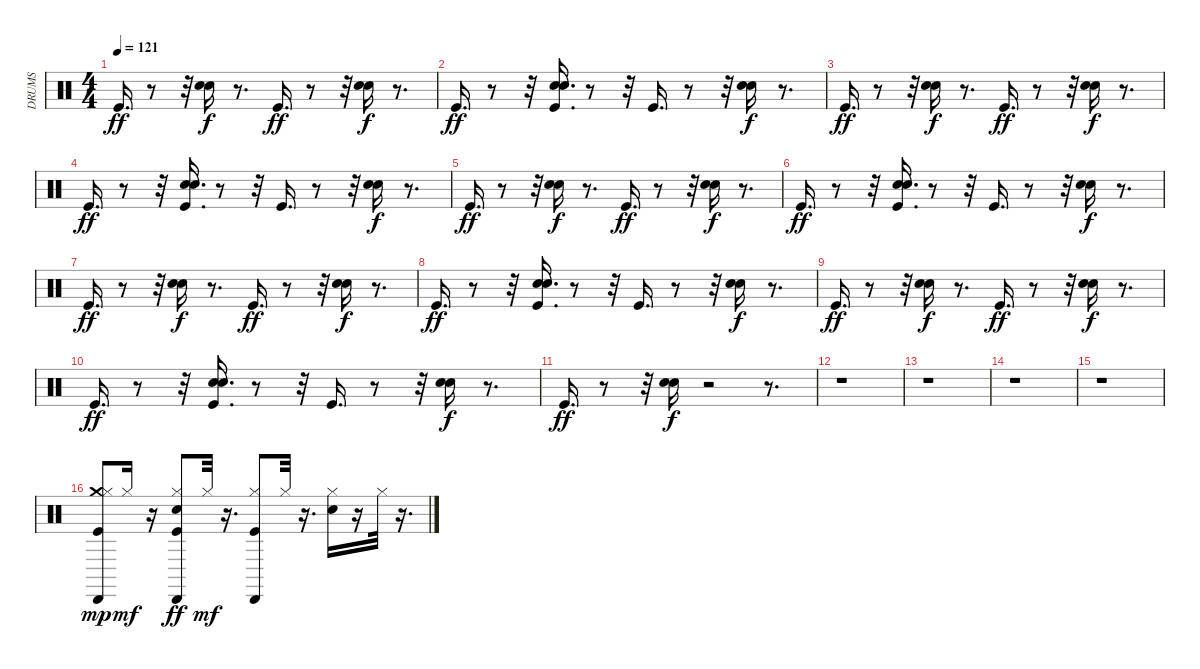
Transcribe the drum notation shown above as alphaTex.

\track ("DRUMS" "DRUMS") {instrument percussion}
\staff {score}
\articulation defaults
\ts (4 4)
\tempo 121
\clef neutral
\ks c "Kick (hit)".16{d dy ff}
r.8 r.32 ("Hand Clap (hit)" "Electric Snare (hit)").16{dy f} r.8{d} "Kick (hit)".16{d dy ff} r.8 r.32 ("Electric Snare (hit)" "Hand Clap (hit)").16{dy f} r.8{d} |
"Kick (hit)".16{d dy ff} r.8 r.32 ("Hand Clap (hit)" "Kick (hit)" "Electric Snare (hit)").16{d} r.8 r.32 "Kick (hit)".16{d} r.8 r.32 ("Hand Clap (hit)" "Electric Snare (hit)").16{dy f} r.8{d} |
"Kick (hit)".16{d dy ff} r.8 r.32 ("Electric Snare (hit)" "Hand Clap (hit)").16{dy f} r.8{d} "Kick (hit)".16{d dy ff} r.8 r.32 ("Electric Snare (hit)" "Hand Clap (hit)").16{dy f} r.8{d} |
"Kick (hit)".16{d dy ff} r.8 r.32 ("Kick (hit)" "Electric Snare (hit)" "Hand Clap (hit)").16{d} r.8 r.32 "Kick (hit)".16{d} r.8 r.32 ("Hand Clap (hit)" "Electric Snare (hit)").16{dy f} r.8{d} |
"Kick (hit)".16{d dy ff} r.8 r.32 ("Hand Clap (hit)" "Electric Snare (hit)").16{dy f} r.8{d} "Kick (hit)".16{d dy ff} r.8 r.32 ("Hand Clap (hit)" "Electric Snare (hit)").16{dy f} r.8{d} |
"Kick (hit)".16{d dy ff} r.8 r.32 ("Kick (hit)" "Hand Clap (hit)" "Electric Snare (hit)").16{d} r.8 r.32 "Kick (hit)".16{d} r.8 r.32 ("Hand Clap (hit)" "Electric Snare (hit)").16{dy f} r.8{d} |
"Kick (hit)".16{d dy ff} r.8 r.32 ("Electric Snare (hit)" "Hand Clap (hit)").16{dy f} r.8{d} "Kick (hit)".16{d dy ff} r.8 r.32 ("Electric Snare (hit)" "Hand Clap (hit)").16{dy f} r.8{d} |
"Kick (hit)".16{d dy ff} r.8 r.32 ("Hand Clap (hit)" "Kick (hit)" "Electric Snare (hit)").16{d} r.8 r.32 "Kick (hit)".16{d} r.8 r.32 ("Hand Clap (hit)" "Electric Snare (hit)").16{dy f} r.8{d} |
"Kick (hit)".16{d dy ff} r.8 r.32 ("Electric Snare (hit)" "Hand Clap (hit)").16{dy f} r.8{d} "Kick (hit)".16{d dy ff} r.8 r.32 ("Electric Snare (hit)" "Hand Clap (hit)").16{dy f} r.8{d} |
"Kick (hit)".16{d dy ff} r.8 r.32 ("Kick (hit)" "Electric Snare (hit)" "Hand Clap (hit)").16{d} r.8 r.32 "Kick (hit)".16{d} r.8 r.32 ("Electric Snare (hit)" "Hand Clap (hit)").16{dy f} r.8{d} |
"Kick (hit)".16{d dy ff} r.8 r.32 ("Hand Clap (hit)" "Electric Snare (hit)").16{dy f} r.2 r.8{d} |
r.1 |
r.1 |
r.1 |
r.1 |
("Crash medium (hit)" "Kick (hit)" "Hi-Hat (closed)" "Cabasa (hit)").8{dy mp} "Hi-Hat (closed)".16{dy mf} r.16 ("Hi-Hat (closed)" "Cabasa (hit)" "Kick (hit)" "Electric Snare (hit)").8{dy ff} "Hi-Hat (closed)".32{dy mf} r.16{d} ("Cabasa (hit)" "Kick (hit)" "Hi-Hat (closed)").8 "Hi-Hat (closed)".32 r.16{d} ("Hi-Hat (closed)" "Electric Snare (hit)").16 r.16 "Hi-Hat (closed)".32 r.16{d}
